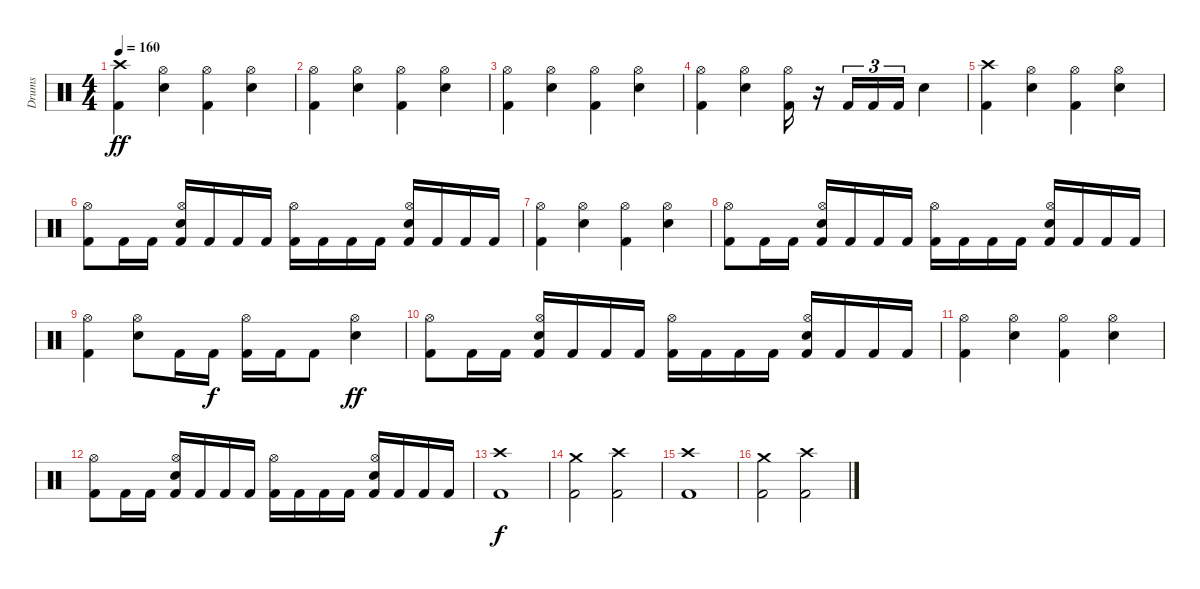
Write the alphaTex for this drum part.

\track ("Drums" "Drums") {instrument percussion}
\staff {score}
\articulation defaults
\ts (4 4)
\tempo 160
\clef neutral
\ks c
("Crash high (hit)" "Kick (hit) 2").4{dy ff} ("Hi-Hat (open)" "Electric Snare (hit)").4 ("Hi-Hat (open)" "Kick (hit) 2").4 ("Hi-Hat (open)" "Electric Snare (hit)").4 |
("Hi-Hat (open)" "Kick (hit) 2").4 ("Hi-Hat (open)" "Electric Snare (hit)").4 ("Hi-Hat (open)" "Kick (hit) 2").4 ("Hi-Hat (open)" "Electric Snare (hit)").4 |
("Hi-Hat (open)" "Kick (hit) 2").4 ("Hi-Hat (open)" "Electric Snare (hit)").4 ("Hi-Hat (open)" "Kick (hit) 2").4 ("Hi-Hat (open)" "Electric Snare (hit)").4 |
("Hi-Hat (open)" "Kick (hit) 2").4 ("Hi-Hat (open)" "Electric Snare (hit)").4 ("Hi-Hat (open)" "Kick (hit) 2").16 r.16 "Kick (hit) 2".16{tu (3 2)} "Kick (hit) 2".16{tu (3 2)} "Kick (hit) 2".16{tu (3 2)} "Electric Snare (hit)".4 |
("Crash high (hit)" "Kick (hit) 2").4 ("Hi-Hat (open)" "Electric Snare (hit)").4 ("Hi-Hat (open)" "Kick (hit) 2").4 ("Hi-Hat (open)" "Electric Snare (hit)").4 |
("Hi-Hat (open)" "Kick (hit) 2").8 "Kick (hit) 2".16 "Kick (hit) 2".16 ("Hi-Hat (open)" "Electric Snare (hit)" "Kick (hit) 2").16 "Kick (hit) 2".16 "Kick (hit) 2".16 "Kick (hit) 2".16 ("Hi-Hat (open)" "Kick (hit) 2").16 "Kick (hit) 2".16 "Kick (hit) 2".16 "Kick (hit) 2".16 ("Hi-Hat (open)" "Electric Snare (hit)" "Kick (hit) 2").16 "Kick (hit) 2".16 "Kick (hit) 2".16 "Kick (hit) 2".16 |
("Hi-Hat (open)" "Kick (hit) 2").4 ("Hi-Hat (open)" "Electric Snare (hit)").4 ("Hi-Hat (open)" "Kick (hit) 2").4 ("Hi-Hat (open)" "Electric Snare (hit)").4 |
("Hi-Hat (open)" "Kick (hit) 2").8 "Kick (hit) 2".16 "Kick (hit) 2".16 ("Hi-Hat (open)" "Electric Snare (hit)" "Kick (hit) 2").16 "Kick (hit) 2".16 "Kick (hit) 2".16 "Kick (hit) 2".16 ("Hi-Hat (open)" "Kick (hit) 2").16 "Kick (hit) 2".16 "Kick (hit) 2".16 "Kick (hit) 2".16 ("Hi-Hat (open)" "Electric Snare (hit)" "Kick (hit) 2").16 "Kick (hit) 2".16 "Kick (hit) 2".16 "Kick (hit) 2".16 |
("Hi-Hat (open)" "Kick (hit) 2").4 ("Hi-Hat (open)" "Electric Snare (hit)").8 "Kick (hit) 2".16 "Kick (hit) 2".16{dy f} ("Hi-Hat (open)" "Kick (hit) 2").16 "Kick (hit) 2".16 "Kick (hit) 2".8 ("Hi-Hat (open)" "Electric Snare (hit)").4{dy ff} |
("Hi-Hat (open)" "Kick (hit) 2").8 "Kick (hit) 2".16 "Kick (hit) 2".16 ("Hi-Hat (open)" "Electric Snare (hit)" "Kick (hit) 2").16 "Kick (hit) 2".16 "Kick (hit) 2".16 "Kick (hit) 2".16 ("Hi-Hat (open)" "Kick (hit) 2").16 "Kick (hit) 2".16 "Kick (hit) 2".16 "Kick (hit) 2".16 ("Hi-Hat (open)" "Electric Snare (hit)" "Kick (hit) 2").16 "Kick (hit) 2".16 "Kick (hit) 2".16 "Kick (hit) 2".16 |
("Hi-Hat (open)" "Kick (hit) 2").4 ("Hi-Hat (open)" "Electric Snare (hit)").4 ("Hi-Hat (open)" "Kick (hit) 2").4 ("Hi-Hat (open)" "Electric Snare (hit)").4 |
("Hi-Hat (open)" "Kick (hit) 2").8 "Kick (hit) 2".16 "Kick (hit) 2".16 ("Hi-Hat (open)" "Electric Snare (hit)" "Kick (hit) 2").16 "Kick (hit) 2".16 "Kick (hit) 2".16 "Kick (hit) 2".16 ("Hi-Hat (open)" "Kick (hit) 2").16 "Kick (hit) 2".16 "Kick (hit) 2".16 "Kick (hit) 2".16 ("Hi-Hat (open)" "Electric Snare (hit)" "Kick (hit) 2").16 "Kick (hit) 2".16 "Kick (hit) 2".16 "Kick (hit) 2".16 |
("Crash high (hit)" "Kick (hit) 2").1{dy f} |
("Crash medium (hit)" "Kick (hit) 2").2 ("Crash high (hit)" "Kick (hit) 2").2 |
("Crash high (hit)" "Kick (hit) 2").1 |
("Crash medium (hit)" "Kick (hit) 2").2 ("Crash high (hit)" "Kick (hit) 2").2
